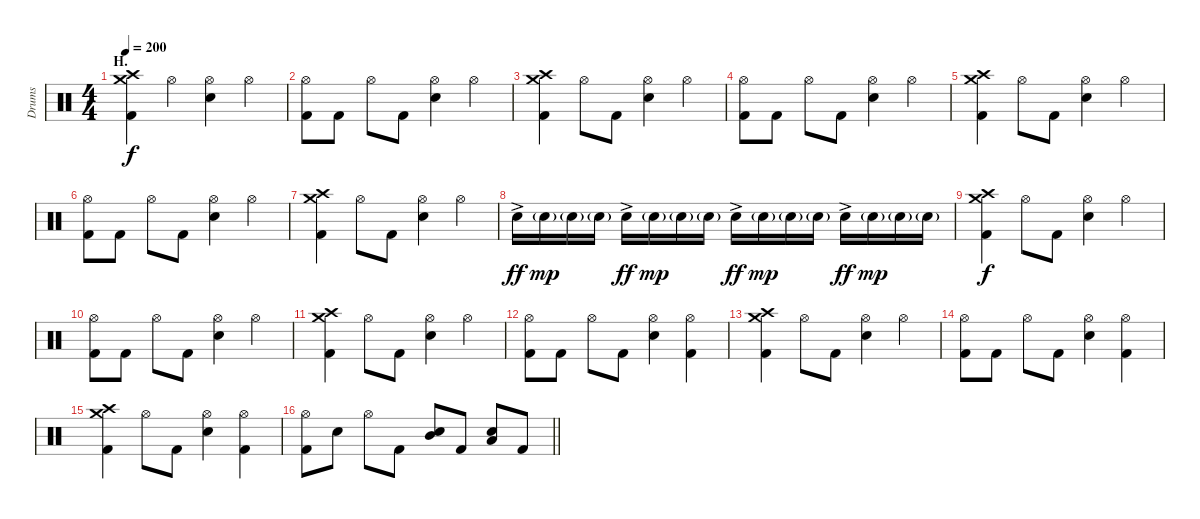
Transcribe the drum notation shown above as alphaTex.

\track ("Drums" "Drums") {instrument percussion}
\staff {score}
\articulation defaults
\ts (4 4)
\section ("" "H.")
\tempo 200
\clef neutral
\ks c
("Crash medium (hit)" "Crash high (hit)" "Kick (hit) 2").4{dy f} "Hi-Hat (open)".4 ("Hi-Hat (open)" "Electric Snare (hit)").4 "Hi-Hat (open)".4 |
("Hi-Hat (open)" "Kick (hit) 2").8 "Kick (hit) 2".8 "Hi-Hat (open)".8 "Kick (hit) 2".8 ("Hi-Hat (open)" "Electric Snare (hit)").4 "Hi-Hat (open)".4 |
("Crash medium (hit)" "Crash high (hit)" "Kick (hit) 2").4 "Hi-Hat (open)".8 "Kick (hit) 2".8 ("Hi-Hat (open)" "Electric Snare (hit)").4 "Hi-Hat (open)".4 |
("Hi-Hat (open)" "Kick (hit) 2").8 "Kick (hit) 2".8 "Hi-Hat (open)".8 "Kick (hit) 2".8 ("Hi-Hat (open)" "Electric Snare (hit)").4 "Hi-Hat (open)".4 |
("Crash medium (hit)" "Crash high (hit)" "Kick (hit) 2").4 "Hi-Hat (open)".8 "Kick (hit) 2".8 ("Hi-Hat (open)" "Electric Snare (hit)").4 "Hi-Hat (open)".4 |
("Hi-Hat (open)" "Kick (hit) 2").8 "Kick (hit) 2".8 "Hi-Hat (open)".8 "Kick (hit) 2".8 ("Hi-Hat (open)" "Electric Snare (hit)").4 "Hi-Hat (open)".4 |
("Crash medium (hit)" "Crash high (hit)" "Kick (hit) 2").4 "Hi-Hat (open)".8 "Kick (hit) 2".8 ("Hi-Hat (open)" "Electric Snare (hit)").4 "Hi-Hat (open)".4 |
"Electric Snare (hit)"{ac}.16{dy ff} "Electric Snare (hit)"{g}.16{dy mp} "Electric Snare (hit)"{g}.16 "Electric Snare (hit)"{g}.16 "Electric Snare (hit)"{ac}.16{dy ff} "Electric Snare (hit)"{g}.16{dy mp} "Electric Snare (hit)"{g}.16 "Electric Snare (hit)"{g}.16 "Electric Snare (hit)"{ac}.16{dy ff} "Electric Snare (hit)"{g}.16{dy mp} "Electric Snare (hit)"{g}.16 "Electric Snare (hit)"{g}.16 "Electric Snare (hit)"{ac}.16{dy ff} "Electric Snare (hit)"{g}.16{dy mp} "Electric Snare (hit)"{g}.16 "Electric Snare (hit)"{g}.16 |
("Crash medium (hit)" "Crash high (hit)" "Kick (hit) 2").4{dy f} "Hi-Hat (open)".8 "Kick (hit) 2".8 ("Hi-Hat (open)" "Electric Snare (hit)").4 "Hi-Hat (open)".4 |
("Hi-Hat (open)" "Kick (hit) 2").8 "Kick (hit) 2".8 "Hi-Hat (open)".8 "Kick (hit) 2".8 ("Hi-Hat (open)" "Electric Snare (hit)").4 "Hi-Hat (open)".4 |
("Crash medium (hit)" "Crash high (hit)" "Kick (hit) 2").4 "Hi-Hat (open)".8 "Kick (hit) 2".8 ("Hi-Hat (open)" "Electric Snare (hit)").4 "Hi-Hat (open)".4 |
("Hi-Hat (open)" "Kick (hit) 2").8 "Kick (hit) 2".8 "Hi-Hat (open)".8 "Kick (hit) 2".8 ("Hi-Hat (open)" "Electric Snare (hit)").4 ("Hi-Hat (open)" "Kick (hit) 2").4 |
("Crash medium (hit)" "Crash high (hit)" "Kick (hit) 2").4 "Hi-Hat (open)".8 "Kick (hit) 2".8 ("Hi-Hat (open)" "Electric Snare (hit)").4 "Hi-Hat (open)".4 |
("Hi-Hat (open)" "Kick (hit) 2").8 "Kick (hit) 2".8 "Hi-Hat (open)".8 "Kick (hit) 2".8 ("Hi-Hat (open)" "Electric Snare (hit)").4 ("Hi-Hat (open)" "Kick (hit) 2").4 |
("Crash medium (hit)" "Crash high (hit)" "Kick (hit) 2").4 "Hi-Hat (open)".8 "Kick (hit) 2".8 ("Hi-Hat (open)" "Electric Snare (hit)").4 ("Hi-Hat (open)" "Kick (hit) 2").4 |
\barLineRight lightlight
("Hi-Hat (open)" "Kick (hit) 2").8 "Electric Snare (hit)".8 "Hi-Hat (open)".8 "Kick (hit) 2".8 ("Mid Tom (hit)" "Electric Snare (hit)").8{bu 120} "Kick (hit) 2".8 ("Low Tom (hit)" "Electric Snare (hit)").8{bu 120} "Kick (hit) 2".8
